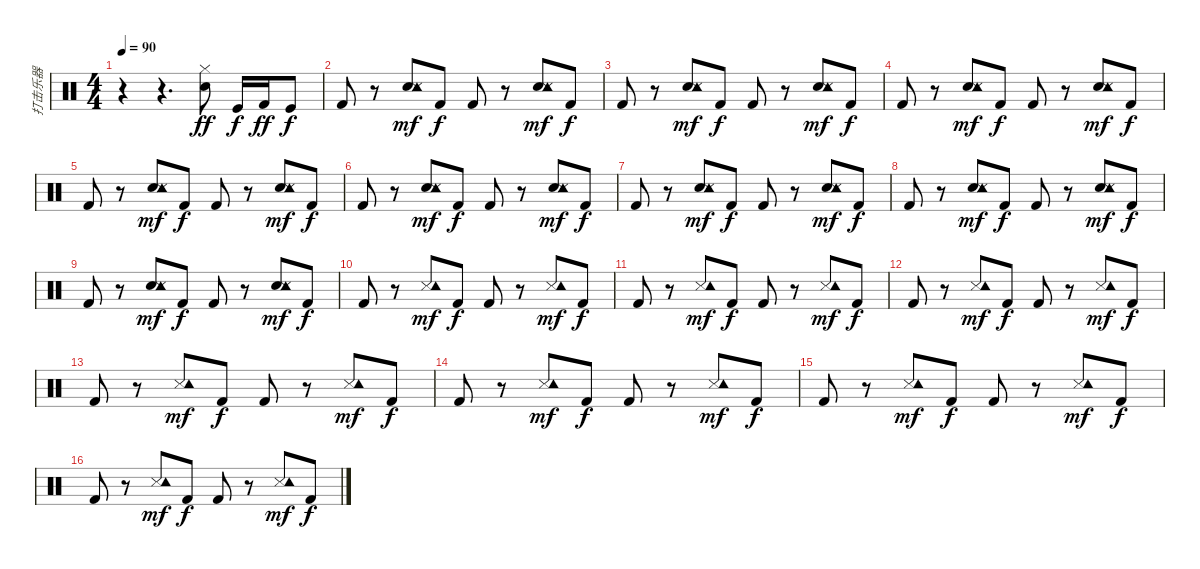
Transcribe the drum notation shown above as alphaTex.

\track ("打击乐器" "打击乐器") {instrument percussion}
\staff {score}
\articulation defaults
\ts (4 4)
\tempo 90
\clef neutral
\ks c
r.4{dy ff} r.4{d} ("Snare (hit) 2" "Hi-Hat (closed)").8 "Kick (hit)".16{dy f} "Kick (hit) 2".16{dy ff} "Kick (hit)".8{dy f} |
"Kick (hit) 2".8 r.8 ("Snare (hit) 2" "Snare (side stick) 3" "Tambourine (hit)").8{dy mf} "Kick (hit) 2".8{dy f} "Kick (hit) 2".8 r.8 ("Snare (hit) 2" "Snare (side stick) 3" "Tambourine (hit)").8{dy mf} "Kick (hit) 2".8{dy f} |
"Kick (hit) 2".8 r.8 ("Snare (hit) 2" "Snare (side stick) 3" "Tambourine (hit)").8{dy mf} "Kick (hit) 2".8{dy f} "Kick (hit) 2".8 r.8 ("Snare (hit) 2" "Snare (side stick) 3" "Tambourine (hit)").8{dy mf} "Kick (hit) 2".8{dy f} |
"Kick (hit) 2".8 r.8 ("Snare (hit) 2" "Snare (side stick) 3" "Tambourine (hit)").8{dy mf} "Kick (hit) 2".8{dy f} "Kick (hit) 2".8 r.8 ("Snare (hit) 2" "Snare (side stick) 3" "Tambourine (hit)").8{dy mf} "Kick (hit) 2".8{dy f} |
"Kick (hit) 2".8 r.8 ("Snare (hit) 2" "Snare (side stick) 3" "Tambourine (hit)").8{dy mf} "Kick (hit) 2".8{dy f} "Kick (hit) 2".8 r.8 ("Snare (hit) 2" "Snare (side stick) 3" "Tambourine (hit)").8{dy mf} "Kick (hit) 2".8{dy f} |
"Kick (hit) 2".8 r.8 ("Snare (hit) 2" "Snare (side stick) 3" "Tambourine (hit)").8{dy mf} "Kick (hit) 2".8{dy f} "Kick (hit) 2".8 r.8 ("Snare (hit) 2" "Snare (side stick) 3" "Tambourine (hit)").8{dy mf} "Kick (hit) 2".8{dy f} |
"Kick (hit) 2".8 r.8 ("Snare (hit) 2" "Snare (side stick) 3" "Tambourine (hit)").8{dy mf} "Kick (hit) 2".8{dy f} "Kick (hit) 2".8 r.8 ("Snare (hit) 2" "Snare (side stick) 3" "Tambourine (hit)").8{dy mf} "Kick (hit) 2".8{dy f} |
"Kick (hit) 2".8 r.8 ("Snare (hit) 2" "Snare (side stick) 3" "Tambourine (hit)").8{dy mf} "Kick (hit) 2".8{dy f} "Kick (hit) 2".8 r.8 ("Snare (hit) 2" "Snare (side stick) 3" "Tambourine (hit)").8{dy mf} "Kick (hit) 2".8{dy f} |
"Kick (hit) 2".8 r.8 ("Snare (hit) 2" "Snare (side stick) 3" "Tambourine (hit)").8{dy mf} "Kick (hit) 2".8{dy f} "Kick (hit) 2".8 r.8 ("Snare (hit) 2" "Snare (side stick) 3" "Tambourine (hit)").8{dy mf} "Kick (hit) 2".8{dy f} |
"Kick (hit) 2".8 r.8 ("Snare (side stick) 3" "Tambourine (hit)").8{dy mf} "Kick (hit) 2".8{dy f} "Kick (hit) 2".8 r.8 ("Snare (side stick) 3" "Tambourine (hit)").8{dy mf} "Kick (hit) 2".8{dy f} |
"Kick (hit) 2".8 r.8 ("Snare (side stick) 3" "Tambourine (hit)").8{dy mf} "Kick (hit) 2".8{dy f} "Kick (hit) 2".8 r.8 ("Snare (side stick) 3" "Tambourine (hit)").8{dy mf} "Kick (hit) 2".8{dy f} |
"Kick (hit) 2".8 r.8 ("Snare (side stick) 3" "Tambourine (hit)").8{dy mf} "Kick (hit) 2".8{dy f} "Kick (hit) 2".8 r.8 ("Snare (side stick) 3" "Tambourine (hit)").8{dy mf} "Kick (hit) 2".8{dy f} |
"Kick (hit) 2".8 r.8 ("Snare (side stick) 3" "Tambourine (hit)").8{dy mf} "Kick (hit) 2".8{dy f} "Kick (hit) 2".8 r.8 ("Snare (side stick) 3" "Tambourine (hit)").8{dy mf} "Kick (hit) 2".8{dy f} |
"Kick (hit) 2".8 r.8 ("Snare (side stick) 3" "Tambourine (hit)").8{dy mf} "Kick (hit) 2".8{dy f} "Kick (hit) 2".8 r.8 ("Snare (side stick) 3" "Tambourine (hit)").8{dy mf} "Kick (hit) 2".8{dy f} |
"Kick (hit) 2".8 r.8 ("Snare (side stick) 3" "Tambourine (hit)").8{dy mf} "Kick (hit) 2".8{dy f} "Kick (hit) 2".8 r.8 ("Snare (side stick) 3" "Tambourine (hit)").8{dy mf} "Kick (hit) 2".8{dy f} |
"Kick (hit) 2".8 r.8 ("Snare (side stick) 3" "Tambourine (hit)").8{dy mf} "Kick (hit) 2".8{dy f} "Kick (hit) 2".8 r.8 ("Snare (side stick) 3" "Tambourine (hit)").8{dy mf} "Kick (hit) 2".8{dy f}
